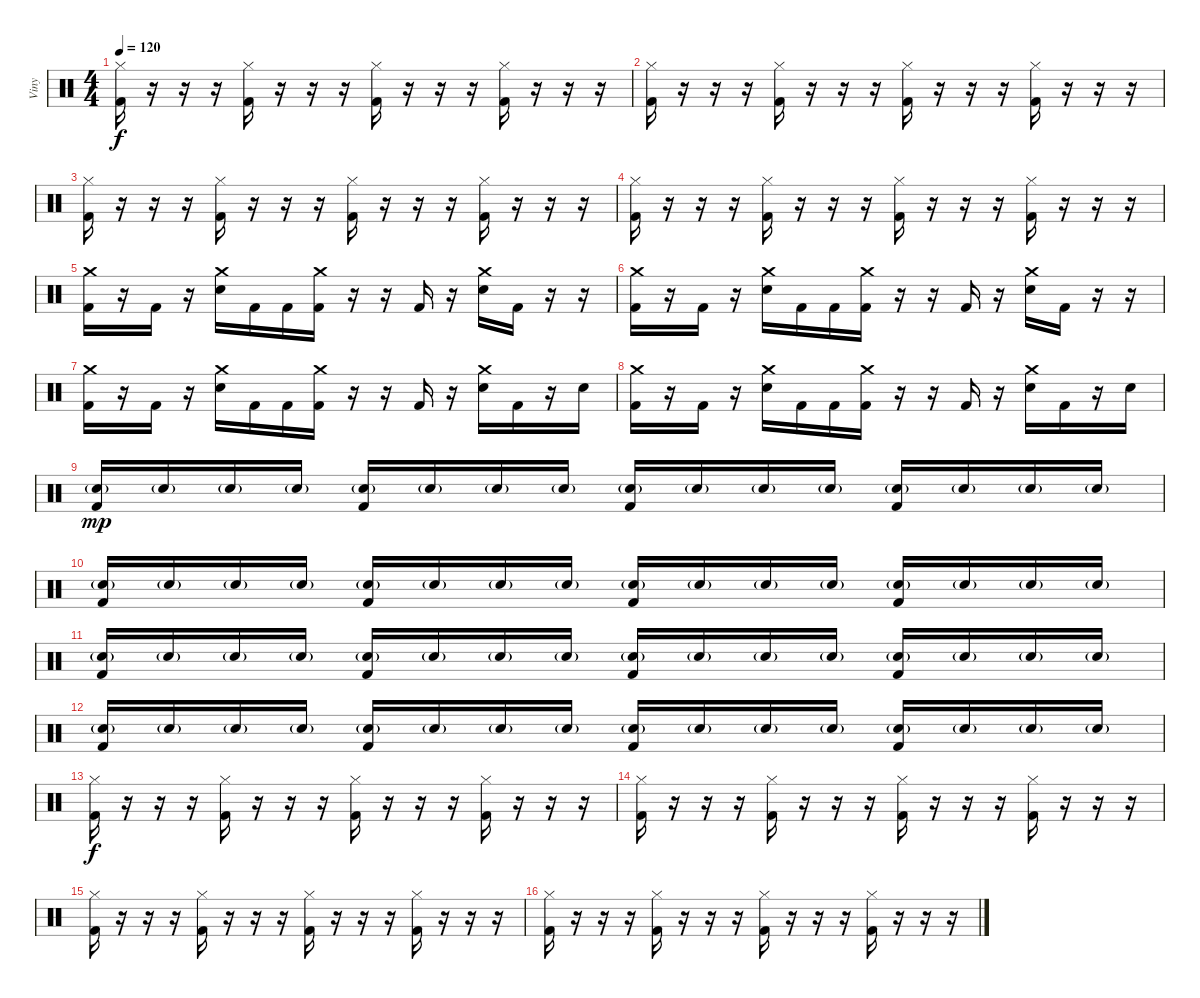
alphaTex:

\track ("Viny" "Viny") {instrument percussion}
\staff {score}
\articulation defaults
\ts (4 4)
\tempo 120
\clef neutral
\ks c
("Hi-Hat (closed)" "Kick (hit) 2").16{dy f} r.16 r.16 r.16 ("Hi-Hat (closed)" "Kick (hit) 2").16 r.16 r.16 r.16 ("Hi-Hat (closed)" "Kick (hit) 2").16 r.16 r.16 r.16 ("Hi-Hat (closed)" "Kick (hit) 2").16 r.16 r.16 r.16 |
("Hi-Hat (closed)" "Kick (hit) 2").16 r.16 r.16 r.16 ("Hi-Hat (closed)" "Kick (hit) 2").16 r.16 r.16 r.16 ("Hi-Hat (closed)" "Kick (hit) 2").16 r.16 r.16 r.16 ("Hi-Hat (closed)" "Kick (hit) 2").16 r.16 r.16 r.16 |
("Hi-Hat (closed)" "Kick (hit) 2").16 r.16 r.16 r.16 ("Hi-Hat (closed)" "Kick (hit) 2").16 r.16 r.16 r.16 ("Hi-Hat (closed)" "Kick (hit) 2").16 r.16 r.16 r.16 ("Hi-Hat (closed)" "Kick (hit) 2").16 r.16 r.16 r.16 |
("Hi-Hat (closed)" "Kick (hit) 2").16 r.16 r.16 r.16 ("Hi-Hat (closed)" "Kick (hit) 2").16 r.16 r.16 r.16 ("Hi-Hat (closed)" "Kick (hit) 2").16 r.16 r.16 r.16 ("Hi-Hat (closed)" "Kick (hit) 2").16 r.16 r.16 r.16 |
("Crash medium (hit)" "Kick (hit) 2").16 r.16 "Kick (hit) 2".16 r.16 ("Crash medium (hit)" "Electric Snare (hit)").16 "Kick (hit) 2".16 "Kick (hit) 2".16 ("Crash medium (hit)" "Kick (hit) 2").16 r.16 r.16 "Kick (hit) 2".16 r.16 ("Crash medium (hit)" "Electric Snare (hit)").16 "Kick (hit) 2".16 r.16 r.16 |
("Crash medium (hit)" "Kick (hit) 2").16 r.16 "Kick (hit) 2".16 r.16 ("Crash medium (hit)" "Electric Snare (hit)").16 "Kick (hit) 2".16 "Kick (hit) 2".16 ("Crash medium (hit)" "Kick (hit) 2").16 r.16 r.16 "Kick (hit) 2".16 r.16 ("Crash medium (hit)" "Electric Snare (hit)").16 "Kick (hit) 2".16 r.16 r.16 |
("Crash medium (hit)" "Kick (hit) 2").16 r.16 "Kick (hit) 2".16 r.16 ("Crash medium (hit)" "Electric Snare (hit)").16 "Kick (hit) 2".16 "Kick (hit) 2".16 ("Crash medium (hit)" "Kick (hit) 2").16 r.16 r.16 "Kick (hit) 2".16 r.16 ("Crash medium (hit)" "Electric Snare (hit)").16 "Kick (hit) 2".16 r.16 "Electric Snare (hit)".16 |
("Crash medium (hit)" "Kick (hit) 2").16 r.16 "Kick (hit) 2".16 r.16 ("Crash medium (hit)" "Electric Snare (hit)").16 "Kick (hit) 2".16 "Kick (hit) 2".16 ("Crash medium (hit)" "Kick (hit) 2").16 r.16 r.16 "Kick (hit) 2".16 r.16 ("Crash medium (hit)" "Electric Snare (hit)").16 "Kick (hit) 2".16 r.16 "Electric Snare (hit)".16 |
("Electric Snare (hit)"{g} "Kick (hit) 2").16{dy mp} "Electric Snare (hit)"{g}.16 "Electric Snare (hit)"{g}.16 "Electric Snare (hit)"{g}.16 ("Electric Snare (hit)"{g} "Kick (hit) 2").16 "Electric Snare (hit)"{g}.16 "Electric Snare (hit)"{g}.16 "Electric Snare (hit)"{g}.16 ("Electric Snare (hit)"{g} "Kick (hit) 2").16 "Electric Snare (hit)"{g}.16 "Electric Snare (hit)"{g}.16 "Electric Snare (hit)"{g}.16 ("Electric Snare (hit)"{g} "Kick (hit) 2").16 "Electric Snare (hit)"{g}.16 "Electric Snare (hit)"{g}.16 "Electric Snare (hit)"{g}.16 |
("Electric Snare (hit)"{g} "Kick (hit) 2").16 "Electric Snare (hit)"{g}.16 "Electric Snare (hit)"{g}.16 "Electric Snare (hit)"{g}.16 ("Electric Snare (hit)"{g} "Kick (hit) 2").16 "Electric Snare (hit)"{g}.16 "Electric Snare (hit)"{g}.16 "Electric Snare (hit)"{g}.16 ("Electric Snare (hit)"{g} "Kick (hit) 2").16 "Electric Snare (hit)"{g}.16 "Electric Snare (hit)"{g}.16 "Electric Snare (hit)"{g}.16 ("Electric Snare (hit)"{g} "Kick (hit) 2").16 "Electric Snare (hit)"{g}.16 "Electric Snare (hit)"{g}.16 "Electric Snare (hit)"{g}.16 |
("Electric Snare (hit)"{g} "Kick (hit) 2").16 "Electric Snare (hit)"{g}.16 "Electric Snare (hit)"{g}.16 "Electric Snare (hit)"{g}.16 ("Electric Snare (hit)"{g} "Kick (hit) 2").16 "Electric Snare (hit)"{g}.16 "Electric Snare (hit)"{g}.16 "Electric Snare (hit)"{g}.16 ("Electric Snare (hit)"{g} "Kick (hit) 2").16 "Electric Snare (hit)"{g}.16 "Electric Snare (hit)"{g}.16 "Electric Snare (hit)"{g}.16 ("Electric Snare (hit)"{g} "Kick (hit) 2").16 "Electric Snare (hit)"{g}.16 "Electric Snare (hit)"{g}.16 "Electric Snare (hit)"{g}.16 |
("Electric Snare (hit)"{g} "Kick (hit) 2").16 "Electric Snare (hit)"{g}.16 "Electric Snare (hit)"{g}.16 "Electric Snare (hit)"{g}.16 ("Electric Snare (hit)"{g} "Kick (hit) 2").16 "Electric Snare (hit)"{g}.16 "Electric Snare (hit)"{g}.16 "Electric Snare (hit)"{g}.16 ("Electric Snare (hit)"{g} "Kick (hit) 2").16 "Electric Snare (hit)"{g}.16 "Electric Snare (hit)"{g}.16 "Electric Snare (hit)"{g}.16 ("Electric Snare (hit)"{g} "Kick (hit) 2").16 "Electric Snare (hit)"{g}.16 "Electric Snare (hit)"{g}.16 "Electric Snare (hit)"{g}.16 |
("Hi-Hat (closed)" "Kick (hit) 2").16{dy f} r.16 r.16 r.16 ("Hi-Hat (closed)" "Kick (hit) 2").16 r.16 r.16 r.16 ("Hi-Hat (closed)" "Kick (hit) 2").16 r.16 r.16 r.16 ("Hi-Hat (closed)" "Kick (hit) 2").16 r.16 r.16 r.16 |
("Hi-Hat (closed)" "Kick (hit) 2").16 r.16 r.16 r.16 ("Hi-Hat (closed)" "Kick (hit) 2").16 r.16 r.16 r.16 ("Hi-Hat (closed)" "Kick (hit) 2").16 r.16 r.16 r.16 ("Hi-Hat (closed)" "Kick (hit) 2").16 r.16 r.16 r.16 |
("Hi-Hat (closed)" "Kick (hit) 2").16 r.16 r.16 r.16 ("Hi-Hat (closed)" "Kick (hit) 2").16 r.16 r.16 r.16 ("Hi-Hat (closed)" "Kick (hit) 2").16 r.16 r.16 r.16 ("Hi-Hat (closed)" "Kick (hit) 2").16 r.16 r.16 r.16 |
("Hi-Hat (closed)" "Kick (hit) 2").16 r.16 r.16 r.16 ("Hi-Hat (closed)" "Kick (hit) 2").16 r.16 r.16 r.16 ("Hi-Hat (closed)" "Kick (hit) 2").16 r.16 r.16 r.16 ("Hi-Hat (closed)" "Kick (hit) 2").16 r.16 r.16 r.16
